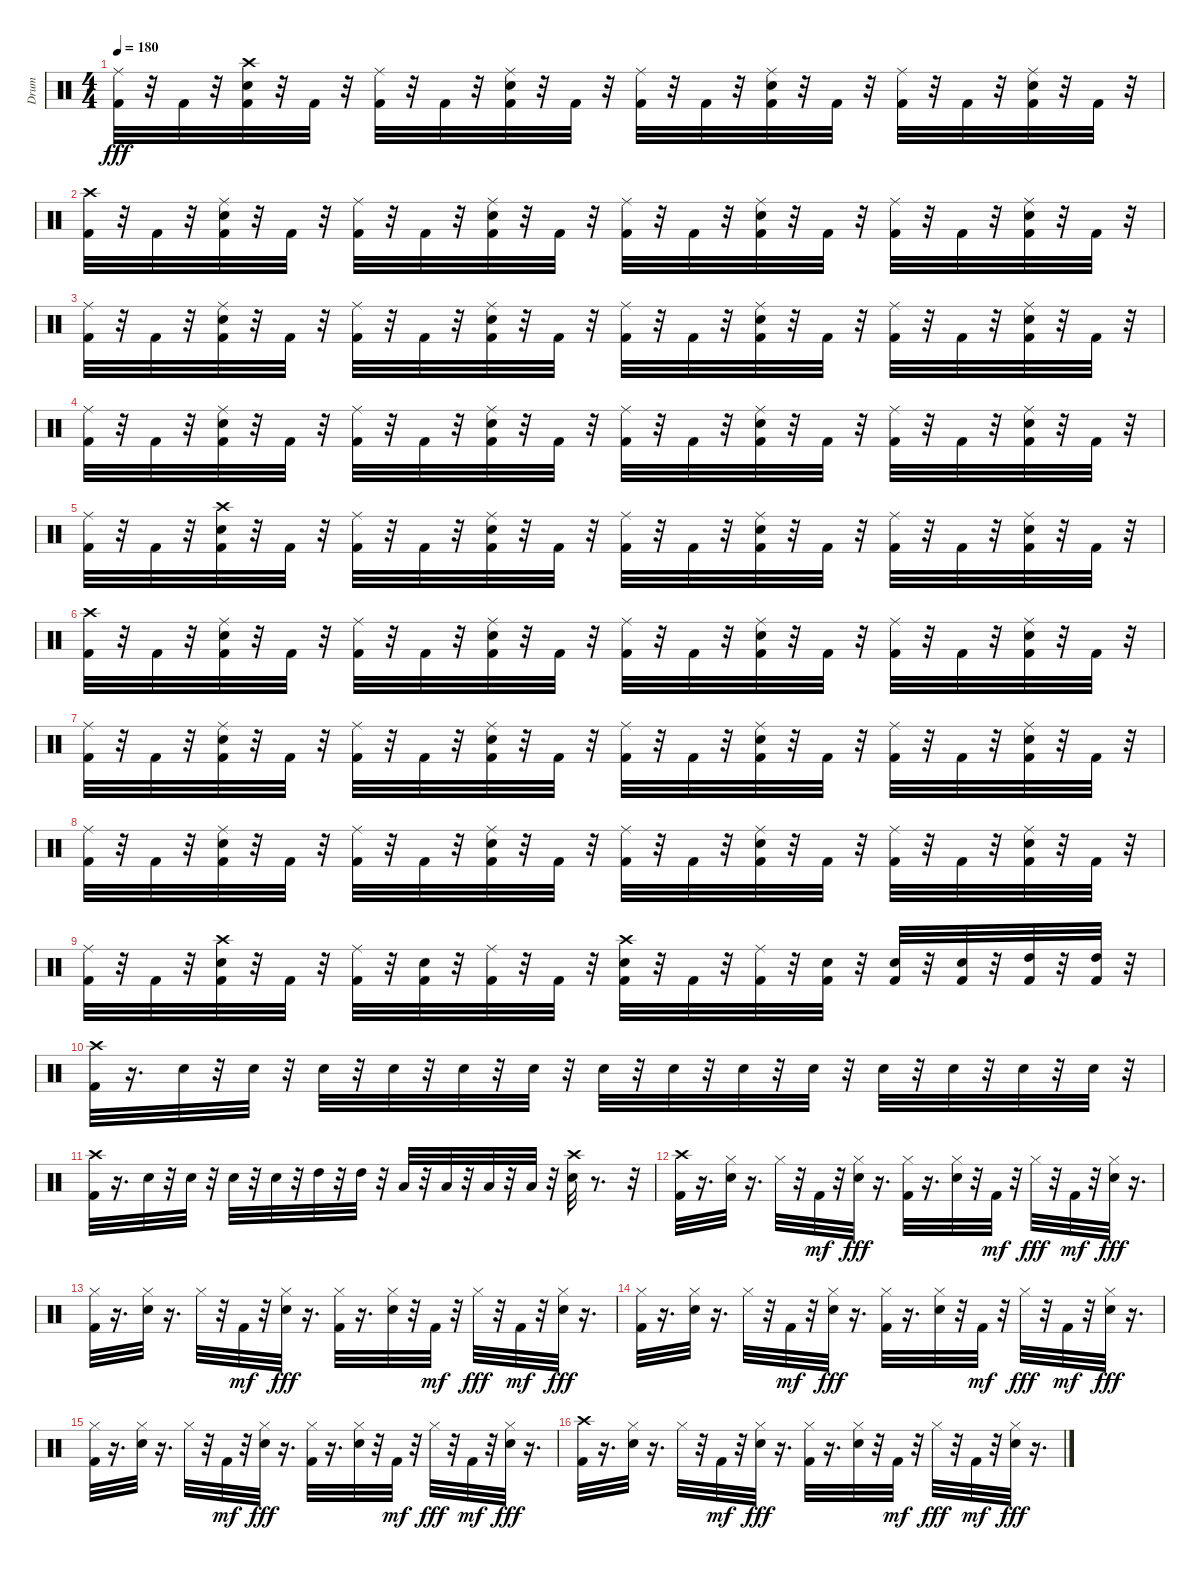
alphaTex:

\track ("Drum" "Drum") {instrument percussion}
\staff {score}
\articulation defaults
\ts (4 4)
\tempo 180
\clef neutral
\ks c
("Kick (hit) 2" "Ride (middle)").32{dy fff} r.32 "Kick (hit) 2".32 r.32 ("Kick (hit) 2" "Snare (hit) 2" "Crash high (hit)").32 r.32 "Kick (hit) 2".32 r.32 ("Kick (hit) 2" "Ride (middle)").32 r.32 "Kick (hit) 2".32 r.32 ("Kick (hit) 2" "Snare (hit) 2" "Ride (middle)").32 r.32 "Kick (hit) 2".32 r.32 ("Kick (hit) 2" "Ride (middle)").32 r.32 "Kick (hit) 2".32 r.32 ("Kick (hit) 2" "Snare (hit) 2" "Ride (middle)").32 r.32 "Kick (hit) 2".32 r.32 ("Kick (hit) 2" "Ride (middle)").32 r.32 "Kick (hit) 2".32 r.32 ("Kick (hit) 2" "Snare (hit) 2" "Ride (middle)").32 r.32 "Kick (hit) 2".32 r.32 |
("Kick (hit) 2" "Crash high (hit)").32 r.32 "Kick (hit) 2".32 r.32 ("Kick (hit) 2" "Ride (middle)" "Snare (hit) 2").32 r.32 "Kick (hit) 2".32 r.32 ("Kick (hit) 2" "Ride (middle)").32 r.32 "Kick (hit) 2".32 r.32 ("Kick (hit) 2" "Ride (middle)" "Snare (hit) 2").32 r.32 "Kick (hit) 2".32 r.32 ("Kick (hit) 2" "Ride (middle)").32 r.32 "Kick (hit) 2".32 r.32 ("Kick (hit) 2" "Ride (middle)" "Snare (hit) 2").32 r.32 "Kick (hit) 2".32 r.32 ("Kick (hit) 2" "Ride (middle)").32 r.32 "Kick (hit) 2".32 r.32 ("Kick (hit) 2" "Ride (middle)" "Snare (hit) 2").32 r.32 "Kick (hit) 2".32 r.32 |
("Kick (hit) 2" "Ride (middle)").32 r.32 "Kick (hit) 2".32 r.32 ("Kick (hit) 2" "Snare (hit) 2" "Ride (middle)").32 r.32 "Kick (hit) 2".32 r.32 ("Kick (hit) 2" "Ride (middle)").32 r.32 "Kick (hit) 2".32 r.32 ("Kick (hit) 2" "Snare (hit) 2" "Ride (middle)").32 r.32 "Kick (hit) 2".32 r.32 ("Kick (hit) 2" "Ride (middle)").32 r.32 "Kick (hit) 2".32 r.32 ("Kick (hit) 2" "Snare (hit) 2" "Ride (middle)").32 r.32 "Kick (hit) 2".32 r.32 ("Kick (hit) 2" "Ride (middle)").32 r.32 "Kick (hit) 2".32 r.32 ("Kick (hit) 2" "Snare (hit) 2" "Ride (middle)").32 r.32 "Kick (hit) 2".32 r.32 |
("Kick (hit) 2" "Ride (middle)").32 r.32 "Kick (hit) 2".32 r.32 ("Kick (hit) 2" "Snare (hit) 2" "Ride (middle)").32 r.32 "Kick (hit) 2".32 r.32 ("Kick (hit) 2" "Ride (middle)").32 r.32 "Kick (hit) 2".32 r.32 ("Kick (hit) 2" "Snare (hit) 2" "Ride (middle)").32 r.32 "Kick (hit) 2".32 r.32 ("Kick (hit) 2" "Ride (middle)").32 r.32 "Kick (hit) 2".32 r.32 ("Kick (hit) 2" "Snare (hit) 2" "Ride (middle)").32 r.32 "Kick (hit) 2".32 r.32 ("Kick (hit) 2" "Ride (middle)").32 r.32 "Kick (hit) 2".32 r.32 ("Kick (hit) 2" "Snare (hit) 2" "Ride (middle)").32 r.32 "Kick (hit) 2".32 r.32 |
("Kick (hit) 2" "Ride (middle)").32 r.32 "Kick (hit) 2".32 r.32 ("Kick (hit) 2" "Snare (hit) 2" "Crash high (hit)").32 r.32 "Kick (hit) 2".32 r.32 ("Kick (hit) 2" "Ride (middle)").32 r.32 "Kick (hit) 2".32 r.32 ("Kick (hit) 2" "Snare (hit) 2" "Ride (middle)").32 r.32 "Kick (hit) 2".32 r.32 ("Kick (hit) 2" "Ride (middle)").32 r.32 "Kick (hit) 2".32 r.32 ("Kick (hit) 2" "Snare (hit) 2" "Ride (middle)").32 r.32 "Kick (hit) 2".32 r.32 ("Kick (hit) 2" "Ride (middle)").32 r.32 "Kick (hit) 2".32 r.32 ("Kick (hit) 2" "Snare (hit) 2" "Ride (middle)").32 r.32 "Kick (hit) 2".32 r.32 |
("Kick (hit) 2" "Crash high (hit)").32 r.32 "Kick (hit) 2".32 r.32 ("Kick (hit) 2" "Ride (middle)" "Snare (hit) 2").32 r.32 "Kick (hit) 2".32 r.32 ("Kick (hit) 2" "Ride (middle)").32 r.32 "Kick (hit) 2".32 r.32 ("Kick (hit) 2" "Ride (middle)" "Snare (hit) 2").32 r.32 "Kick (hit) 2".32 r.32 ("Kick (hit) 2" "Ride (middle)").32 r.32 "Kick (hit) 2".32 r.32 ("Kick (hit) 2" "Ride (middle)" "Snare (hit) 2").32 r.32 "Kick (hit) 2".32 r.32 ("Kick (hit) 2" "Ride (middle)").32 r.32 "Kick (hit) 2".32 r.32 ("Kick (hit) 2" "Ride (middle)" "Snare (hit) 2").32 r.32 "Kick (hit) 2".32 r.32 |
("Kick (hit) 2" "Ride (middle)").32 r.32 "Kick (hit) 2".32 r.32 ("Kick (hit) 2" "Snare (hit) 2" "Ride (middle)").32 r.32 "Kick (hit) 2".32 r.32 ("Kick (hit) 2" "Ride (middle)").32 r.32 "Kick (hit) 2".32 r.32 ("Kick (hit) 2" "Snare (hit) 2" "Ride (middle)").32 r.32 "Kick (hit) 2".32 r.32 ("Kick (hit) 2" "Ride (middle)").32 r.32 "Kick (hit) 2".32 r.32 ("Kick (hit) 2" "Snare (hit) 2" "Ride (middle)").32 r.32 "Kick (hit) 2".32 r.32 ("Kick (hit) 2" "Ride (middle)").32 r.32 "Kick (hit) 2".32 r.32 ("Kick (hit) 2" "Snare (hit) 2" "Ride (middle)").32 r.32 "Kick (hit) 2".32 r.32 |
("Kick (hit) 2" "Ride (middle)").32 r.32 "Kick (hit) 2".32 r.32 ("Kick (hit) 2" "Snare (hit) 2" "Ride (middle)").32 r.32 "Kick (hit) 2".32 r.32 ("Kick (hit) 2" "Ride (middle)").32 r.32 "Kick (hit) 2".32 r.32 ("Kick (hit) 2" "Snare (hit) 2" "Ride (middle)").32 r.32 "Kick (hit) 2".32 r.32 ("Kick (hit) 2" "Ride (middle)").32 r.32 "Kick (hit) 2".32 r.32 ("Kick (hit) 2" "Snare (hit) 2" "Ride (middle)").32 r.32 "Kick (hit) 2".32 r.32 ("Kick (hit) 2" "Ride (middle)").32 r.32 "Kick (hit) 2".32 r.32 ("Kick (hit) 2" "Snare (hit) 2" "Ride (middle)").32 r.32 "Kick (hit) 2".32 r.32 |
("Kick (hit) 2" "Ride (middle)").32 r.32 "Kick (hit) 2".32 r.32 ("Kick (hit) 2" "Crash high (hit)" "Snare (hit) 2").32 r.32 "Kick (hit) 2".32 r.32 ("Kick (hit) 2" "Ride (middle)").32 r.32 ("Kick (hit) 2" "Snare (hit) 2").32 r.32 ("Kick (hit) 2" "Ride (middle)").32 r.32 "Kick (hit) 2".32 r.32 ("Kick (hit) 2" "Crash high (hit)" "Snare (hit) 2").32 r.32 "Kick (hit) 2".32 r.32 ("Kick (hit) 2" "Ride (middle)").32 r.32 ("Kick (hit) 2" "Snare (hit) 2").32 r.32 ("Kick (hit) 2" "Snare (hit) 2").32 r.32 ("Kick (hit) 2" "Snare (hit) 2").32 r.32 ("Kick (hit) 2" "High Tom (hit)").32 r.32 ("Kick (hit) 2" "High Tom (hit)").32 r.32 |
("Kick (hit) 2" "Crash high (hit)").32 r.16{d} "Snare (hit) 2".32 r.32 "Snare (hit) 2".32 r.32 "Snare (hit) 2".32 r.32 "Snare (hit) 2".32 r.32 "Snare (hit) 2".32 r.32 "Snare (hit) 2".32 r.32 "Snare (hit) 2".32 r.32 "Snare (hit) 2".32 r.32 "Snare (hit) 2".32 r.32 "Snare (hit) 2".32 r.32 "Snare (hit) 2".32 r.32 "Snare (hit) 2".32 r.32 "Snare (hit) 2".32 r.32 "Snare (hit) 2".32 r.32 |
("Kick (hit) 2" "Crash high (hit)").32 r.16{d} "Snare (hit) 2".32 r.32 "Snare (hit) 2".32 r.32 "Snare (hit) 2".32 r.32 "Snare (hit) 2".32 r.32 "High Tom (hit)".32 r.32 "High Tom (hit)".32 r.32 "Low Tom (hit)".32 r.32 "Low Tom (hit)".32 r.32 "Low Floor Tom (hit)".32 r.32 "Low Floor Tom (hit)".32 r.32 ("Snare (hit) 2" "Crash high (hit)").32 r.8{d} r.32 |
("Kick (hit) 2" "Crash high (hit)").32 r.16{d} ("Hi-Hat (closed)" "Snare (hit) 2").32 r.16{d} "Hi-Hat (closed)".32 r.32 "Kick (hit) 2".32{dy mf} r.32 ("Hi-Hat (closed)" "Snare (hit) 2").32{dy fff} r.16{d} ("Kick (hit) 2" "Hi-Hat (closed)").32 r.16{d} ("Hi-Hat (closed)" "Snare (hit) 2").32 r.32 "Kick (hit) 2".32{dy mf} r.32 "Hi-Hat (closed)".32{dy fff} r.32 "Kick (hit) 2".32{dy mf} r.32 ("Hi-Hat (closed)" "Snare (hit) 2").32{dy fff} r.16{d} |
("Kick (hit) 2" "Hi-Hat (closed)").32 r.16{d} ("Hi-Hat (closed)" "Snare (hit) 2").32 r.16{d} "Hi-Hat (closed)".32 r.32 "Kick (hit) 2".32{dy mf} r.32 ("Hi-Hat (closed)" "Snare (hit) 2").32{dy fff} r.16{d} ("Kick (hit) 2" "Hi-Hat (closed)").32 r.16{d} ("Hi-Hat (closed)" "Snare (hit) 2").32 r.32 "Kick (hit) 2".32{dy mf} r.32 "Hi-Hat (closed)".32{dy fff} r.32 "Kick (hit) 2".32{dy mf} r.32 ("Hi-Hat (closed)" "Snare (hit) 2").32{dy fff} r.16{d} |
("Kick (hit) 2" "Hi-Hat (closed)").32 r.16{d} ("Hi-Hat (closed)" "Snare (hit) 2").32 r.16{d} "Hi-Hat (closed)".32 r.32 "Kick (hit) 2".32{dy mf} r.32 ("Hi-Hat (closed)" "Snare (hit) 2").32{dy fff} r.16{d} ("Kick (hit) 2" "Hi-Hat (closed)").32 r.16{d} ("Hi-Hat (closed)" "Snare (hit) 2").32 r.32 "Kick (hit) 2".32{dy mf} r.32 "Hi-Hat (closed)".32{dy fff} r.32 "Kick (hit) 2".32{dy mf} r.32 ("Hi-Hat (closed)" "Snare (hit) 2").32{dy fff} r.16{d} |
("Kick (hit) 2" "Hi-Hat (closed)").32 r.16{d} ("Hi-Hat (closed)" "Snare (hit) 2").32 r.16{d} "Hi-Hat (closed)".32 r.32 "Kick (hit) 2".32{dy mf} r.32 ("Hi-Hat (closed)" "Snare (hit) 2").32{dy fff} r.16{d} ("Kick (hit) 2" "Hi-Hat (closed)").32 r.16{d} ("Hi-Hat (closed)" "Snare (hit) 2").32 r.32 "Kick (hit) 2".32{dy mf} r.32 "Hi-Hat (closed)".32{dy fff} r.32 "Kick (hit) 2".32{dy mf} r.32 ("Hi-Hat (closed)" "Snare (hit) 2").32{dy fff} r.16{d} |
("Kick (hit) 2" "Crash high (hit)").32 r.16{d} ("Hi-Hat (closed)" "Snare (hit) 2").32 r.16{d} "Hi-Hat (closed)".32 r.32 "Kick (hit) 2".32{dy mf} r.32 ("Hi-Hat (closed)" "Snare (hit) 2").32{dy fff} r.16{d} ("Kick (hit) 2" "Hi-Hat (closed)").32 r.16{d} ("Hi-Hat (closed)" "Snare (hit) 2").32 r.32 "Kick (hit) 2".32{dy mf} r.32 "Hi-Hat (closed)".32{dy fff} r.32 "Kick (hit) 2".32{dy mf} r.32 ("Hi-Hat (closed)" "Snare (hit) 2").32{dy fff} r.16{d}
